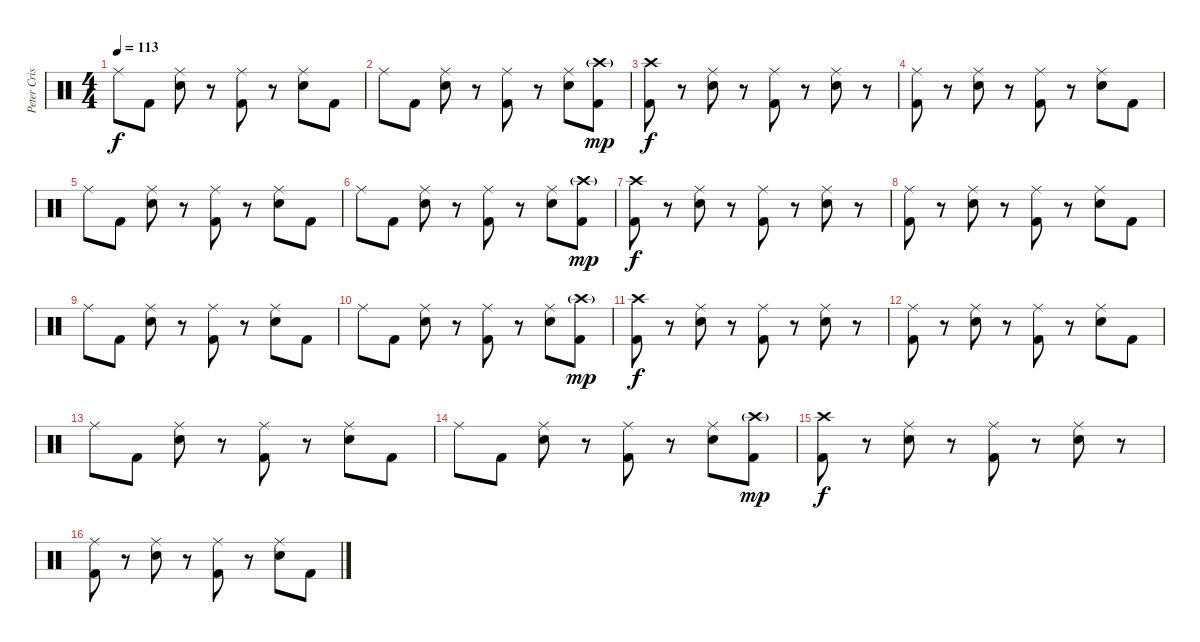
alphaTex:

\track ("Peter Criss" "Peter Cris") {instrument percussion}
\staff {score}
\articulation defaults
\ts (4 4)
\tempo 113
\clef neutral
\ks c "Ride (middle)".8{dy f} "Kick (hit) 2".8
("Ride (middle)" "Electric Snare (hit)").8 r.8 ("Ride (middle)" "Kick (hit) 2").8 r.8 ("Ride (middle)" "Electric Snare (hit)").8 "Kick (hit) 2".8 |
"Ride (middle)".8 "Kick (hit) 2".8 ("Ride (middle)" "Electric Snare (hit)").8 r.8 ("Ride (middle)" "Kick (hit) 2").8 r.8 ("Ride (middle)" "Electric Snare (hit)").8 ("Crash high (hit)"{g} "Kick (hit) 2").8{dy mp} |
("Crash high (hit)" "Kick (hit) 2").8{dy f} r.8 ("Ride (middle)" "Electric Snare (hit)").8 r.8 ("Ride (middle)" "Kick (hit) 2").8 r.8 ("Ride (middle)" "Electric Snare (hit)").8 r.8 |
("Ride (middle)" "Kick (hit) 2").8 r.8 ("Ride (middle)" "Electric Snare (hit)").8 r.8 ("Ride (middle)" "Kick (hit) 2").8 r.8 ("Ride (middle)" "Electric Snare (hit)").8 "Kick (hit) 2".8 |
"Ride (middle)".8 "Kick (hit) 2".8 ("Ride (middle)" "Electric Snare (hit)").8 r.8 ("Ride (middle)" "Kick (hit) 2").8 r.8 ("Ride (middle)" "Electric Snare (hit)").8 "Kick (hit) 2".8 |
"Ride (middle)".8 "Kick (hit) 2".8 ("Ride (middle)" "Electric Snare (hit)").8 r.8 ("Ride (middle)" "Kick (hit) 2").8 r.8 ("Ride (middle)" "Electric Snare (hit)").8 ("Crash high (hit)"{g} "Kick (hit) 2").8{dy mp} |
("Crash high (hit)" "Kick (hit) 2").8{dy f} r.8 ("Ride (middle)" "Electric Snare (hit)").8 r.8 ("Ride (middle)" "Kick (hit) 2").8 r.8 ("Ride (middle)" "Electric Snare (hit)").8 r.8 |
("Ride (middle)" "Kick (hit) 2").8 r.8 ("Ride (middle)" "Electric Snare (hit)").8 r.8 ("Ride (middle)" "Kick (hit) 2").8 r.8 ("Ride (middle)" "Electric Snare (hit)").8 "Kick (hit) 2".8 |
"Ride (middle)".8 "Kick (hit) 2".8 ("Ride (middle)" "Electric Snare (hit)").8 r.8 ("Ride (middle)" "Kick (hit) 2").8 r.8 ("Ride (middle)" "Electric Snare (hit)").8 "Kick (hit) 2".8 |
"Ride (middle)".8 "Kick (hit) 2".8 ("Ride (middle)" "Electric Snare (hit)").8 r.8 ("Ride (middle)" "Kick (hit) 2").8 r.8 ("Ride (middle)" "Electric Snare (hit)").8 ("Crash high (hit)"{g} "Kick (hit) 2").8{dy mp} |
("Crash high (hit)" "Kick (hit) 2").8{dy f} r.8 ("Ride (middle)" "Electric Snare (hit)").8 r.8 ("Ride (middle)" "Kick (hit) 2").8 r.8 ("Ride (middle)" "Electric Snare (hit)").8 r.8 |
("Ride (middle)" "Kick (hit) 2").8 r.8 ("Ride (middle)" "Electric Snare (hit)").8 r.8 ("Ride (middle)" "Kick (hit) 2").8 r.8 ("Ride (middle)" "Electric Snare (hit)").8 "Kick (hit) 2".8 |
"Ride (middle)".8 "Kick (hit) 2".8 ("Ride (middle)" "Electric Snare (hit)").8 r.8 ("Ride (middle)" "Kick (hit) 2").8 r.8 ("Ride (middle)" "Electric Snare (hit)").8 "Kick (hit) 2".8 |
"Ride (middle)".8 "Kick (hit) 2".8 ("Ride (middle)" "Electric Snare (hit)").8 r.8 ("Ride (middle)" "Kick (hit) 2").8 r.8 ("Ride (middle)" "Electric Snare (hit)").8 ("Crash high (hit)"{g} "Kick (hit) 2").8{dy mp} |
("Crash high (hit)" "Kick (hit) 2").8{dy f} r.8 ("Ride (middle)" "Electric Snare (hit)").8 r.8 ("Ride (middle)" "Kick (hit) 2").8 r.8 ("Ride (middle)" "Electric Snare (hit)").8 r.8 |
("Ride (middle)" "Kick (hit) 2").8 r.8 ("Ride (middle)" "Electric Snare (hit)").8 r.8 ("Ride (middle)" "Kick (hit) 2").8 r.8 ("Ride (middle)" "Electric Snare (hit)").8 "Kick (hit) 2".8
